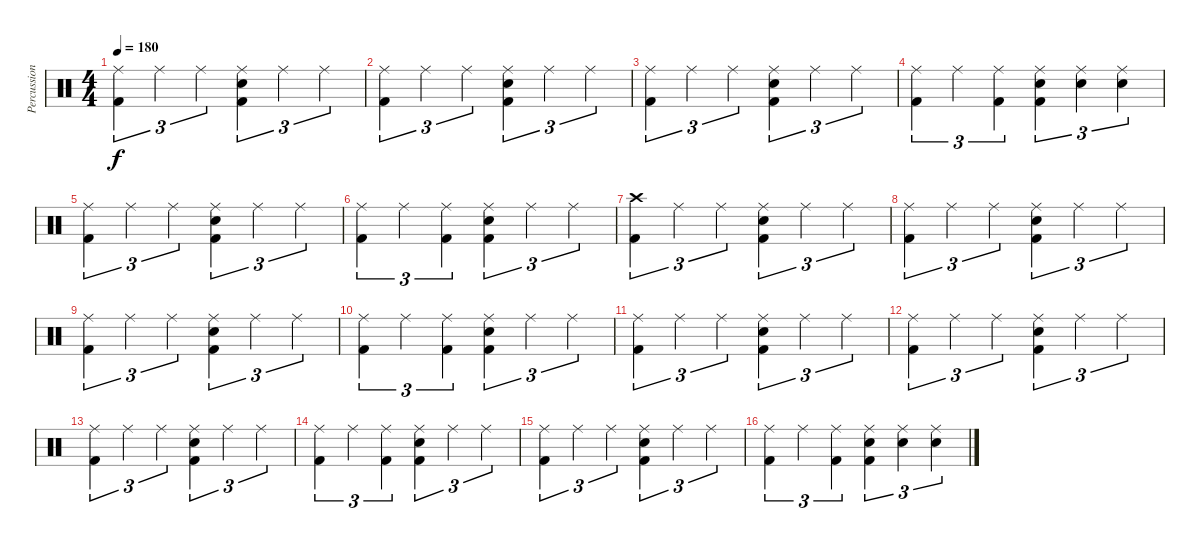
\track ("Percussion" "Percussion") {instrument percussion}
\staff {score}
\articulation defaults
\ts (4 4)
\tempo 180
\clef neutral
\ks c
("Ride (middle)" "Kick (hit) 2").4{tu (3 2) dy f} "Ride (middle)".4{tu (3 2)} "Ride (middle)".4{tu (3 2)} ("Ride (middle)" "Snare (hit) 2" "Kick (hit) 2").4{tu (3 2)} "Ride (middle)".4{tu (3 2)} "Ride (middle)".4{tu (3 2)} |
("Ride (middle)" "Kick (hit) 2").4{tu (3 2)} "Ride (middle)".4{tu (3 2)} "Ride (middle)".4{tu (3 2)} ("Ride (middle)" "Snare (hit) 2" "Kick (hit) 2").4{tu (3 2)} "Ride (middle)".4{tu (3 2)} "Ride (middle)".4{tu (3 2)} |
("Ride (middle)" "Kick (hit) 2").4{tu (3 2)} "Ride (middle)".4{tu (3 2)} "Ride (middle)".4{tu (3 2)} ("Ride (middle)" "Snare (hit) 2" "Kick (hit) 2").4{tu (3 2)} "Ride (middle)".4{tu (3 2)} "Ride (middle)".4{tu (3 2)} |
("Ride (middle)" "Kick (hit) 2").4{tu (3 2)} "Ride (middle)".4{tu (3 2)} ("Ride (middle)" "Kick (hit) 2").4{tu (3 2)} ("Ride (middle)" "Snare (hit) 2" "Kick (hit) 2").4{tu (3 2)} ("Ride (middle)" "Snare (hit) 2").4{tu (3 2)} ("Ride (middle)" "Snare (hit) 2").4{tu (3 2)} |
("Ride (middle)" "Kick (hit) 2").4{tu (3 2)} "Ride (middle)".4{tu (3 2)} "Ride (middle)".4{tu (3 2)} ("Ride (middle)" "Snare (hit) 2" "Kick (hit) 2").4{tu (3 2)} "Ride (middle)".4{tu (3 2)} "Ride (middle)".4{tu (3 2)} |
("Ride (middle)" "Kick (hit) 2").4{tu (3 2)} "Ride (middle)".4{tu (3 2)} ("Ride (middle)" "Kick (hit) 2").4{tu (3 2)} ("Ride (middle)" "Snare (hit) 2" "Kick (hit) 2").4{tu (3 2)} "Ride (middle)".4{tu (3 2)} "Ride (middle)".4{tu (3 2)} |
("Crash high (hit)" "Kick (hit) 2").4{tu (3 2)} "Ride (middle)".4{tu (3 2)} "Ride (middle)".4{tu (3 2)} ("Ride (middle)" "Snare (hit) 2" "Kick (hit) 2").4{tu (3 2)} "Ride (middle)".4{tu (3 2)} "Ride (middle)".4{tu (3 2)} |
("Ride (middle)" "Kick (hit) 2").4{tu (3 2)} "Ride (middle)".4{tu (3 2)} "Ride (middle)".4{tu (3 2)} ("Ride (middle)" "Snare (hit) 2" "Kick (hit) 2").4{tu (3 2)} "Ride (middle)".4{tu (3 2)} "Ride (middle)".4{tu (3 2)} |
("Ride (middle)" "Kick (hit) 2").4{tu (3 2)} "Ride (middle)".4{tu (3 2)} "Ride (middle)".4{tu (3 2)} ("Ride (middle)" "Snare (hit) 2" "Kick (hit) 2").4{tu (3 2)} "Ride (middle)".4{tu (3 2)} "Ride (middle)".4{tu (3 2)} |
("Ride (middle)" "Kick (hit) 2").4{tu (3 2)} "Ride (middle)".4{tu (3 2)} ("Ride (middle)" "Kick (hit) 2").4{tu (3 2)} ("Ride (middle)" "Snare (hit) 2" "Kick (hit) 2").4{tu (3 2)} "Ride (middle)".4{tu (3 2)} "Ride (middle)".4{tu (3 2)} |
("Ride (middle)" "Kick (hit) 2").4{tu (3 2)} "Ride (middle)".4{tu (3 2)} "Ride (middle)".4{tu (3 2)} ("Ride (middle)" "Snare (hit) 2" "Kick (hit) 2").4{tu (3 2)} "Ride (middle)".4{tu (3 2)} "Ride (middle)".4{tu (3 2)} |
("Ride (middle)" "Kick (hit) 2").4{tu (3 2)} "Ride (middle)".4{tu (3 2)} "Ride (middle)".4{tu (3 2)} ("Ride (middle)" "Snare (hit) 2" "Kick (hit) 2").4{tu (3 2)} "Ride (middle)".4{tu (3 2)} "Ride (middle)".4{tu (3 2)} |
("Ride (middle)" "Kick (hit) 2").4{tu (3 2)} "Ride (middle)".4{tu (3 2)} "Ride (middle)".4{tu (3 2)} ("Ride (middle)" "Snare (hit) 2" "Kick (hit) 2").4{tu (3 2)} "Ride (middle)".4{tu (3 2)} "Ride (middle)".4{tu (3 2)} |
("Ride (middle)" "Kick (hit) 2").4{tu (3 2)} "Ride (middle)".4{tu (3 2)} ("Ride (middle)" "Kick (hit) 2").4{tu (3 2)} ("Ride (middle)" "Snare (hit) 2" "Kick (hit) 2").4{tu (3 2)} "Ride (middle)".4{tu (3 2)} "Ride (middle)".4{tu (3 2)} |
("Ride (middle)" "Kick (hit) 2").4{tu (3 2)} "Ride (middle)".4{tu (3 2)} "Ride (middle)".4{tu (3 2)} ("Ride (middle)" "Snare (hit) 2" "Kick (hit) 2").4{tu (3 2)} "Ride (middle)".4{tu (3 2)} "Ride (middle)".4{tu (3 2)} |
("Ride (middle)" "Kick (hit) 2").4{tu (3 2)} "Ride (middle)".4{tu (3 2)} ("Ride (middle)" "Kick (hit) 2").4{tu (3 2)} ("Ride (middle)" "Snare (hit) 2" "Kick (hit) 2").4{tu (3 2)} ("Ride (middle)" "Snare (hit) 2").4{tu (3 2)} ("Ride (middle)" "Snare (hit) 2").4{tu (3 2)}
